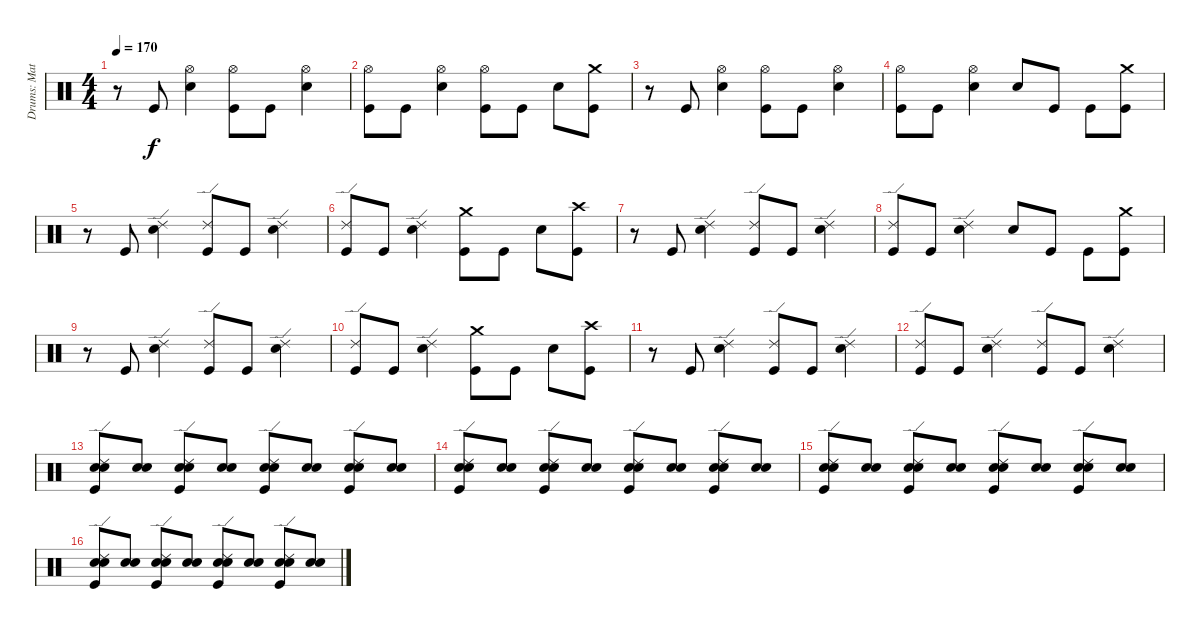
\track ("Drums: Matt" "Drums: Mat") {instrument percussion}
\staff {score}
\articulation defaults
\ts (4 4)
\tempo 170
\clef neutral
\ks c
r.8{dy f} "Kick (hit)".8 ("Snare (hit) 2" "Hi-Hat (open)").4 ("Kick (hit)" "Hi-Hat (open)").8 "Kick (hit)".8 ("Hi-Hat (open)" "Snare (hit) 2").4 |
("Kick (hit)" "Hi-Hat (open)").8 "Kick (hit)".8 ("Snare (hit) 2" "Hi-Hat (open)").4 ("Kick (hit)" "Hi-Hat (open)").8 "Kick (hit)".8 "Snare (hit) 2".8 ("Kick (hit)" "Crash medium (hit)").8 |
r.8 "Kick (hit)".8 ("Hi-Hat (open)" "Snare (hit) 2").4 ("Kick (hit)" "Hi-Hat (open)").8 "Kick (hit)".8 ("Hi-Hat (open)" "Snare (hit) 2").4 |
("Hi-Hat (open)" "Kick (hit)").8 "Kick (hit)".8 ("Hi-Hat (open)" "Snare (hit) 2").4 "Snare (hit) 2".8 "Kick (hit)".8 "Kick (hit)".8 ("Crash medium (hit)" "Kick (hit)").8 |
r.8 "Kick (hit)".8 ("Snare (hit) 2" "Ride (edge) 2").4 ("Kick (hit)" "Ride (edge) 2").8 "Kick (hit)".8 ("Ride (edge) 2" "Snare (hit) 2").4 |
("Ride (edge) 2" "Kick (hit)").8 "Kick (hit)".8 ("Snare (hit) 2" "Ride (edge) 2").4 ("Kick (hit)" "Crash medium (hit)").8 "Kick (hit)".8 "Snare (hit) 2".8 ("Kick (hit)" "Crash high (hit)").8 |
r.8 "Kick (hit)".8 ("Ride (edge) 2" "Snare (hit) 2").4 ("Kick (hit)" "Ride (edge) 2").8 "Kick (hit)".8 ("Snare (hit) 2" "Ride (edge) 2").4 |
("Ride (edge) 2" "Kick (hit)").8 "Kick (hit)".8 ("Snare (hit) 2" "Ride (edge) 2").4 "Snare (hit) 2".8 "Kick (hit)".8 "Kick (hit)".8 ("Crash medium (hit)" "Kick (hit)").8 |
r.8 "Kick (hit)".8 ("Ride (edge) 2" "Snare (hit) 2").4 ("Kick (hit)" "Ride (edge) 2").8 "Kick (hit)".8 ("Snare (hit) 2" "Ride (edge) 2").4 |
("Ride (edge) 2" "Kick (hit)").8 "Kick (hit)".8 ("Snare (hit) 2" "Ride (edge) 2").4 ("Crash medium (hit)" "Kick (hit)").8 "Kick (hit)".8 "Snare (hit) 2".8 ("Kick (hit)" "Crash high (hit)").8 |
r.8 "Kick (hit)".8 ("Ride (edge) 2" "Snare (hit) 2").4 ("Ride (edge) 2" "Kick (hit)").8 "Kick (hit)".8 ("Ride (edge) 2" "Snare (hit) 2").4 |
("Ride (edge) 2" "Kick (hit)").8 "Kick (hit)".8 ("Snare (hit) 2" "Ride (edge) 2").4 ("Kick (hit)" "Ride (edge) 2").8 "Kick (hit)".8 ("Snare (hit) 2" "Ride (edge) 2").4 |
("Ride (edge) 2" "Kick (hit)" "Snare (hit) 2" "Snare (hit) 2").8 ("Snare (hit) 2" "Snare (hit) 2").8 ("Snare (hit) 2" "Ride (edge) 2" "Kick (hit)" "Snare (hit) 2").8 ("Snare (hit) 2" "Snare (hit) 2").8 ("Ride (edge) 2" "Snare (hit) 2" "Kick (hit)" "Snare (hit) 2").8 ("Snare (hit) 2" "Snare (hit) 2").8 ("Snare (hit) 2" "Kick (hit)" "Ride (edge) 2" "Snare (hit) 2").8 ("Snare (hit) 2" "Snare (hit) 2").8 |
("Kick (hit)" "Snare (hit) 2" "Ride (edge) 2" "Snare (hit) 2").8 ("Snare (hit) 2" "Snare (hit) 2").8 ("Ride (edge) 2" "Snare (hit) 2" "Kick (hit)" "Snare (hit) 2").8 ("Snare (hit) 2" "Snare (hit) 2").8 ("Kick (hit)" "Snare (hit) 2" "Ride (edge) 2" "Snare (hit) 2").8 ("Snare (hit) 2" "Snare (hit) 2").8 ("Kick (hit)" "Snare (hit) 2" "Ride (edge) 2" "Snare (hit) 2").8 ("Snare (hit) 2" "Snare (hit) 2").8 |
("Ride (edge) 2" "Snare (hit) 2" "Kick (hit)" "Snare (hit) 2").8 ("Snare (hit) 2" "Snare (hit) 2").8 ("Kick (hit)" "Snare (hit) 2" "Ride (edge) 2" "Snare (hit) 2").8 ("Snare (hit) 2" "Snare (hit) 2").8 ("Kick (hit)" "Snare (hit) 2" "Ride (edge) 2" "Snare (hit) 2").8 ("Snare (hit) 2" "Snare (hit) 2").8 ("Kick (hit)" "Ride (edge) 2" "Snare (hit) 2" "Snare (hit) 2").8 ("Snare (hit) 2" "Snare (hit) 2").8 |
("Kick (hit)" "Snare (hit) 2" "Ride (edge) 2" "Snare (hit) 2").8 ("Snare (hit) 2" "Snare (hit) 2").8 ("Ride (edge) 2" "Snare (hit) 2" "Kick (hit)" "Snare (hit) 2").8 ("Snare (hit) 2" "Snare (hit) 2").8 ("Kick (hit)" "Snare (hit) 2" "Ride (edge) 2" "Snare (hit) 2").8 ("Snare (hit) 2" "Snare (hit) 2").8 ("Kick (hit)" "Snare (hit) 2" "Ride (edge) 2" "Snare (hit) 2").8 ("Snare (hit) 2" "Snare (hit) 2").8
